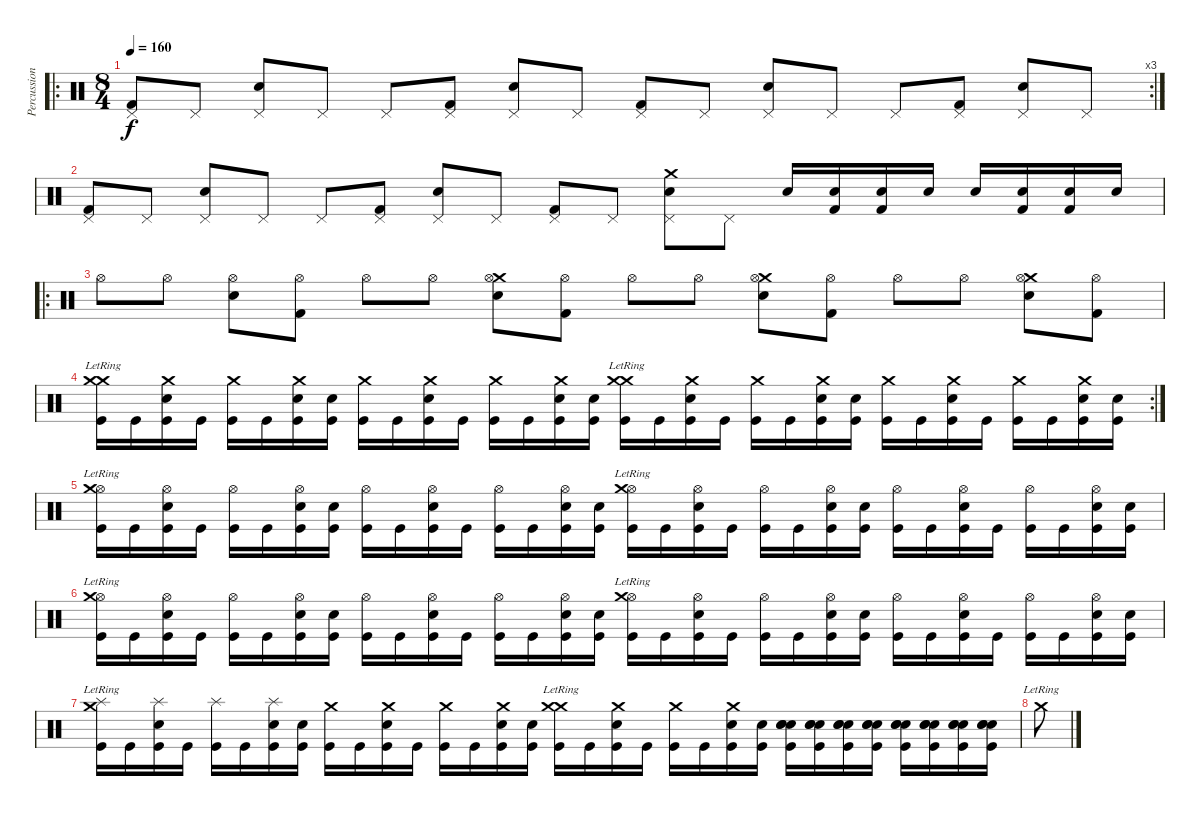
\track ("Percussion" "Percussion") {instrument percussion}
\staff {score}
\articulation defaults
\ro
\rc 3
\ts (8 4)
\tempo 160
\clef neutral
\ks c
("Kick (hit) 2" "Pedal Hi-Hat (hit)").8{dy f} "Pedal Hi-Hat (hit)".8 ("Snare (hit) 2" "Pedal Hi-Hat (hit)").8 "Pedal Hi-Hat (hit)".8 "Pedal Hi-Hat (hit)".8 ("Kick (hit) 2" "Pedal Hi-Hat (hit)").8 ("Snare (hit) 2" "Pedal Hi-Hat (hit)").8 "Pedal Hi-Hat (hit)".8 ("Kick (hit) 2" "Pedal Hi-Hat (hit)").8 "Pedal Hi-Hat (hit)".8 ("Snare (hit) 2" "Pedal Hi-Hat (hit)").8 "Pedal Hi-Hat (hit)".8 "Pedal Hi-Hat (hit)".8 ("Kick (hit) 2" "Pedal Hi-Hat (hit)").8 ("Snare (hit) 2" "Pedal Hi-Hat (hit)").8 "Pedal Hi-Hat (hit)".8 |
("Kick (hit) 2" "Pedal Hi-Hat (hit)").8 "Pedal Hi-Hat (hit)".8 ("Snare (hit) 2" "Pedal Hi-Hat (hit)").8 "Pedal Hi-Hat (hit)".8 "Pedal Hi-Hat (hit)".8 ("Kick (hit) 2" "Pedal Hi-Hat (hit)").8 ("Snare (hit) 2" "Pedal Hi-Hat (hit)").8 "Pedal Hi-Hat (hit)".8 ("Kick (hit) 2" "Pedal Hi-Hat (hit)").8 "Pedal Hi-Hat (hit)".8 ("Crash medium (hit)" "Snare (hit) 2" "Pedal Hi-Hat (hit)").8 "Pedal Hi-Hat (hit)".8 "Snare (hit) 2".16 ("Kick (hit) 2" "Snare (hit) 2").16 ("Kick (hit) 2" "Snare (hit) 2").16 "Snare (hit) 2".16 "Snare (hit) 2".16 ("Kick (hit) 2" "Snare (hit) 2").16 ("Kick (hit) 2" "Snare (hit) 2").16 "Snare (hit) 2".16 |
\ro "Hi-Hat (open)".8 "Hi-Hat (open)".8
("Snare (hit) 2" "Hi-Hat (open)").8 ("Kick (hit) 2" "Hi-Hat (open)").8 "Hi-Hat (open)".8 "Hi-Hat (open)".8 ("Crash medium (hit)" "Snare (hit) 2" "Hi-Hat (open)").8 ("Kick (hit) 2" "Hi-Hat (open)").8 "Hi-Hat (open)".8 "Hi-Hat (open)".8 ("Crash medium (hit)" "Snare (hit) 2" "Hi-Hat (open)").8 ("Kick (hit) 2" "Hi-Hat (open)").8 "Hi-Hat (open)".8 "Hi-Hat (open)".8 ("Crash medium (hit)" "Snare (hit) 2" "Hi-Hat (open)").8 ("Kick (hit) 2" "Hi-Hat (open)").8 |
\rc 2
("Crash medium (hit)" "Crash medium (hit)"{lr} "Kick (hit)").16 "Kick (hit)".16 ("Crash medium (hit)" "Snare (hit) 2" "Kick (hit)").16 "Kick (hit)".16 ("Crash medium (hit)" "Kick (hit)").16 "Kick (hit)".16 ("Crash medium (hit)" "Snare (hit) 2" "Kick (hit)").16 ("Snare (hit) 2" "Kick (hit)").16 ("Crash medium (hit)" "Kick (hit)").16 "Kick (hit)".16 ("Crash medium (hit)" "Snare (hit) 2" "Kick (hit)").16 "Kick (hit)".16 ("Crash medium (hit)" "Kick (hit)").16 "Kick (hit)".16 ("Crash medium (hit)" "Snare (hit) 2" "Kick (hit)").16 ("Snare (hit) 2" "Kick (hit)").16 ("Crash medium (hit)" "Crash medium (hit)"{lr} "Kick (hit)").16 "Kick (hit)".16 ("Crash medium (hit)" "Snare (hit) 2" "Kick (hit)").16 "Kick (hit)".16 ("Crash medium (hit)" "Kick (hit)").16 "Kick (hit)".16 ("Crash medium (hit)" "Snare (hit) 2" "Kick (hit)").16 ("Snare (hit) 2" "Kick (hit)").16 ("Crash medium (hit)" "Kick (hit)").16 "Kick (hit)".16 ("Crash medium (hit)" "Snare (hit) 2" "Kick (hit)").16 "Kick (hit)".16 ("Crash medium (hit)" "Kick (hit)").16 "Kick (hit)".16 ("Crash medium (hit)" "Snare (hit) 2" "Kick (hit)").16 ("Snare (hit) 2" "Kick (hit)").16 |
("Hi-Hat (open)" "Crash medium (hit)"{lr} "Kick (hit)").16 "Kick (hit)".16 ("Hi-Hat (open)" "Snare (hit) 2" "Kick (hit)").16 "Kick (hit)".16 ("Hi-Hat (open)" "Kick (hit)").16 "Kick (hit)".16 ("Hi-Hat (open)" "Snare (hit) 2" "Kick (hit)").16 ("Snare (hit) 2" "Kick (hit)").16 ("Hi-Hat (open)" "Kick (hit)").16 "Kick (hit)".16 ("Hi-Hat (open)" "Snare (hit) 2" "Kick (hit)").16 "Kick (hit)".16 ("Hi-Hat (open)" "Kick (hit)").16 "Kick (hit)".16 ("Hi-Hat (open)" "Snare (hit) 2" "Kick (hit)").16 ("Snare (hit) 2" "Kick (hit)").16 ("Hi-Hat (open)" "Crash medium (hit)"{lr} "Kick (hit)").16 "Kick (hit)".16 ("Hi-Hat (open)" "Snare (hit) 2" "Kick (hit)").16 "Kick (hit)".16 ("Hi-Hat (open)" "Kick (hit)").16 "Kick (hit)".16 ("Hi-Hat (open)" "Snare (hit) 2" "Kick (hit)").16 ("Snare (hit) 2" "Kick (hit)").16 ("Hi-Hat (open)" "Kick (hit)").16 "Kick (hit)".16 ("Hi-Hat (open)" "Snare (hit) 2" "Kick (hit)").16 "Kick (hit)".16 ("Hi-Hat (open)" "Kick (hit)").16 "Kick (hit)".16 ("Hi-Hat (open)" "Snare (hit) 2" "Kick (hit)").16 ("Snare (hit) 2" "Kick (hit)").16 |
("Hi-Hat (open)" "Crash medium (hit)"{lr} "Kick (hit)").16 "Kick (hit)".16 ("Hi-Hat (open)" "Snare (hit) 2" "Kick (hit)").16 "Kick (hit)".16 ("Hi-Hat (open)" "Kick (hit)").16 "Kick (hit)".16 ("Hi-Hat (open)" "Snare (hit) 2" "Kick (hit)").16 ("Snare (hit) 2" "Kick (hit)").16 ("Hi-Hat (open)" "Kick (hit)").16 "Kick (hit)".16 ("Hi-Hat (open)" "Snare (hit) 2" "Kick (hit)").16 "Kick (hit)".16 ("Hi-Hat (open)" "Kick (hit)").16 "Kick (hit)".16 ("Hi-Hat (open)" "Snare (hit) 2" "Kick (hit)").16 ("Snare (hit) 2" "Kick (hit)").16 ("Hi-Hat (open)" "Crash medium (hit)"{lr} "Kick (hit)").16 "Kick (hit)".16 ("Hi-Hat (open)" "Snare (hit) 2" "Kick (hit)").16 "Kick (hit)".16 ("Hi-Hat (open)" "Kick (hit)").16 "Kick (hit)".16 ("Hi-Hat (open)" "Snare (hit) 2" "Kick (hit)").16 ("Snare (hit) 2" "Kick (hit)").16 ("Hi-Hat (open)" "Kick (hit)").16 "Kick (hit)".16 ("Hi-Hat (open)" "Snare (hit) 2" "Kick (hit)").16 "Kick (hit)".16 ("Hi-Hat (open)" "Kick (hit)").16 "Kick (hit)".16 ("Hi-Hat (open)" "Snare (hit) 2" "Kick (hit)").16 ("Snare (hit) 2" "Kick (hit)").16 |
("Splash (hit)" "Crash medium (hit)"{lr} "Kick (hit)").16 "Kick (hit)".16 ("Splash (hit)" "Snare (hit) 2" "Kick (hit)").16 "Kick (hit)".16 ("Splash (hit)" "Kick (hit)").16 "Kick (hit)".16 ("Splash (hit)" "Snare (hit) 2" "Kick (hit)").16 ("Snare (hit) 2" "Kick (hit)").16 ("Crash medium (hit)" "Kick (hit)").16 "Kick (hit)".16 ("Crash medium (hit)" "Snare (hit) 2" "Kick (hit)").16 "Kick (hit)".16 ("Crash medium (hit)" "Kick (hit)").16 "Kick (hit)".16 ("Crash medium (hit)" "Snare (hit) 2" "Kick (hit)").16 ("Snare (hit) 2" "Kick (hit)").16 ("Crash medium (hit)" "Crash medium (hit)"{lr} "Kick (hit)").16 "Kick (hit)".16 ("Crash medium (hit)" "Snare (hit) 2" "Kick (hit)").16 "Kick (hit)".16 ("Crash medium (hit)" "Kick (hit)").16 "Kick (hit)".16 ("Crash medium (hit)" "Snare (hit) 2" "Kick (hit)").16 ("Snare (hit) 2" "Kick (hit)").16 ("Electric Snare (hit)" "Snare (hit) 2" "Snare (hit) 2" "Kick (hit)").16 ("Electric Snare (hit)" "Snare (hit) 2" "Snare (hit) 2" "Kick (hit)").16 ("Electric Snare (hit)" "Snare (hit) 2" "Snare (hit) 2" "Kick (hit)").16 ("Electric Snare (hit)" "Snare (hit) 2" "Snare (hit) 2" "Kick (hit)").16 ("Electric Snare (hit)" "Snare (hit) 2" "Snare (hit) 2" "Kick (hit)").16 ("Electric Snare (hit)" "Snare (hit) 2" "Snare (hit) 2" "Kick (hit)").16 ("Electric Snare (hit)" "Snare (hit) 2" "Snare (hit) 2" "Kick (hit)").16 ("Electric Snare (hit)" "Snare (hit) 2" "Snare (hit) 2" "Kick (hit)").16 |
"Crash medium (hit)"{lr}.8
